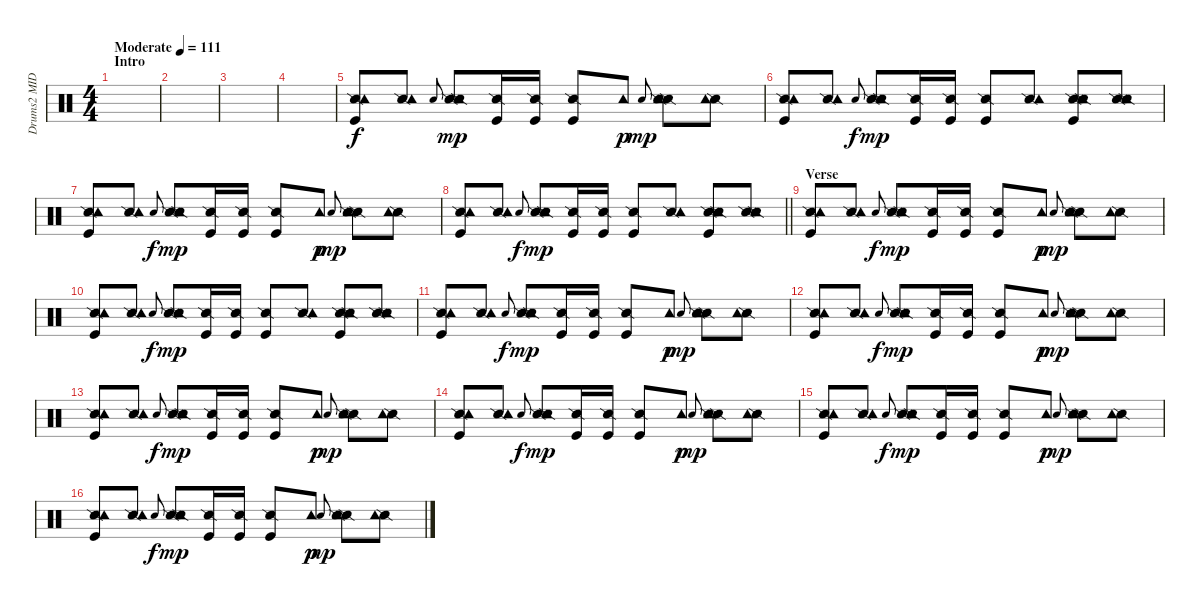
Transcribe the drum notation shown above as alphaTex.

\track ("Drums2 MIDI" "Drums2 MID") {instrument percussion}
\staff {score}
\articulation defaults
\ts (4 4)
\section ("" "Intro")
\tempo (111 "Moderate")
\clef neutral
\ks c
|
|
|
|
("Snare (side stick) 2" "Tambourine (hit)" "Kick (hit)").8 ("Snare (side stick) 2" "Tambourine (hit)").8 "Snare (hit)".8{gr onbeat dy f} ("Snare (side stick) 2" "Tambourine (hit)" "Snare (side stick) 2").8{dy mp} ("Snare (side stick) 2" "Kick (hit)").16 ("Snare (side stick) 2" "Kick (hit)").16 ("Snare (side stick) 2" "Kick (hit)").8 "Tambourine (hit)".8{dy p} "Snare (hit)".8{gr onbeat dy mp} ("Snare (side stick) 2" "Tambourine (hit)" "Snare (side stick) 2").8 ("Snare (side stick) 2" "Tambourine (hit)").8 |
("Snare (side stick) 2" "Tambourine (hit)" "Kick (hit)").8 ("Snare (side stick) 2" "Tambourine (hit)").8 "Snare (hit)".8{gr onbeat dy f} ("Snare (side stick) 2" "Tambourine (hit)" "Snare (side stick) 2").8{dy mp} ("Snare (side stick) 2" "Kick (hit)").16 ("Snare (side stick) 2" "Kick (hit)").16 ("Snare (side stick) 2" "Kick (hit)").8 ("Snare (side stick) 2" "Tambourine (hit)").8 ("Snare (side stick) 2" "Tambourine (hit)" "Kick (hit)" "Snare (side stick) 2").8 ("Snare (side stick) 2" "Tambourine (hit)" "Snare (side stick) 2").8 |
("Snare (side stick) 2" "Tambourine (hit)" "Kick (hit)").8 ("Snare (side stick) 2" "Tambourine (hit)").8 "Snare (hit)".8{gr onbeat dy f} ("Snare (side stick) 2" "Tambourine (hit)" "Snare (side stick) 2").8{dy mp} ("Snare (side stick) 2" "Kick (hit)").16 ("Snare (side stick) 2" "Kick (hit)").16 ("Snare (side stick) 2" "Kick (hit)").8 "Tambourine (hit)".8{dy p} "Snare (hit)".8{gr onbeat dy mp} ("Snare (side stick) 2" "Tambourine (hit)" "Snare (side stick) 2").8 ("Snare (side stick) 2" "Tambourine (hit)").8 |
\barLineRight lightlight
("Snare (side stick) 2" "Tambourine (hit)" "Kick (hit)").8 ("Snare (side stick) 2" "Tambourine (hit)").8 "Snare (hit)".8{gr onbeat dy f} ("Snare (side stick) 2" "Tambourine (hit)" "Snare (side stick) 2").8{dy mp} ("Snare (side stick) 2" "Kick (hit)").16 ("Snare (side stick) 2" "Kick (hit)").16 ("Snare (side stick) 2" "Kick (hit)").8 ("Snare (side stick) 2" "Tambourine (hit)").8 ("Snare (side stick) 2" "Tambourine (hit)" "Kick (hit)" "Snare (side stick) 2").8 ("Snare (side stick) 2" "Tambourine (hit)" "Snare (side stick) 2").8 |
\section ("" "Verse")
("Snare (side stick) 2" "Tambourine (hit)" "Kick (hit)").8 ("Snare (side stick) 2" "Tambourine (hit)").8 "Snare (hit)".8{gr onbeat dy f} ("Snare (side stick) 2" "Tambourine (hit)" "Snare (side stick) 2").8{dy mp} ("Snare (side stick) 2" "Kick (hit)").16 ("Snare (side stick) 2" "Kick (hit)").16 ("Snare (side stick) 2" "Kick (hit)").8 "Tambourine (hit)".8{dy p} "Snare (hit)".8{gr onbeat dy mp} ("Snare (side stick) 2" "Tambourine (hit)" "Snare (side stick) 2").8 ("Snare (side stick) 2" "Tambourine (hit)").8 |
("Snare (side stick) 2" "Tambourine (hit)" "Kick (hit)").8 ("Snare (side stick) 2" "Tambourine (hit)").8 "Snare (hit)".8{gr onbeat dy f} ("Snare (side stick) 2" "Tambourine (hit)" "Snare (side stick) 2").8{dy mp} ("Snare (side stick) 2" "Kick (hit)").16 ("Snare (side stick) 2" "Kick (hit)").16 ("Snare (side stick) 2" "Kick (hit)").8 ("Snare (side stick) 2" "Tambourine (hit)").8 ("Snare (side stick) 2" "Tambourine (hit)" "Kick (hit)" "Snare (side stick) 2").8 ("Snare (side stick) 2" "Tambourine (hit)" "Snare (side stick) 2").8 |
("Snare (side stick) 2" "Tambourine (hit)" "Kick (hit)").8 ("Snare (side stick) 2" "Tambourine (hit)").8 "Snare (hit)".8{gr onbeat dy f} ("Snare (side stick) 2" "Tambourine (hit)" "Snare (side stick) 2").8{dy mp} ("Snare (side stick) 2" "Kick (hit)").16 ("Snare (side stick) 2" "Kick (hit)").16 ("Snare (side stick) 2" "Kick (hit)").8 "Tambourine (hit)".8{dy p} "Snare (hit)".8{gr onbeat dy mp} ("Snare (side stick) 2" "Tambourine (hit)" "Snare (side stick) 2").8 ("Snare (side stick) 2" "Tambourine (hit)").8 |
("Snare (side stick) 2" "Tambourine (hit)" "Kick (hit)").8 ("Snare (side stick) 2" "Tambourine (hit)").8 "Snare (hit)".8{gr onbeat dy f} ("Snare (side stick) 2" "Tambourine (hit)" "Snare (side stick) 2").8{dy mp} ("Snare (side stick) 2" "Kick (hit)").16 ("Snare (side stick) 2" "Kick (hit)").16 ("Snare (side stick) 2" "Kick (hit)").8 "Tambourine (hit)".8{dy p} "Snare (hit)".8{gr onbeat dy mp} ("Snare (side stick) 2" "Tambourine (hit)" "Snare (side stick) 2").8 ("Snare (side stick) 2" "Tambourine (hit)").8 |
("Snare (side stick) 2" "Tambourine (hit)" "Kick (hit)").8 ("Snare (side stick) 2" "Tambourine (hit)").8 "Snare (hit)".8{gr onbeat dy f} ("Snare (side stick) 2" "Tambourine (hit)" "Snare (side stick) 2").8{dy mp} ("Snare (side stick) 2" "Kick (hit)").16 ("Snare (side stick) 2" "Kick (hit)").16 ("Snare (side stick) 2" "Kick (hit)").8 "Tambourine (hit)".8{dy p} "Snare (hit)".8{gr onbeat dy mp} ("Snare (side stick) 2" "Tambourine (hit)" "Snare (side stick) 2").8 ("Snare (side stick) 2" "Tambourine (hit)").8 |
("Snare (side stick) 2" "Tambourine (hit)" "Kick (hit)").8 ("Snare (side stick) 2" "Tambourine (hit)").8 "Snare (hit)".8{gr onbeat dy f} ("Snare (side stick) 2" "Tambourine (hit)" "Snare (side stick) 2").8{dy mp} ("Snare (side stick) 2" "Kick (hit)").16 ("Snare (side stick) 2" "Kick (hit)").16 ("Snare (side stick) 2" "Kick (hit)").8 "Tambourine (hit)".8{dy p} "Snare (hit)".8{gr onbeat dy mp} ("Snare (side stick) 2" "Tambourine (hit)" "Snare (side stick) 2").8 ("Snare (side stick) 2" "Tambourine (hit)").8 |
("Snare (side stick) 2" "Tambourine (hit)" "Kick (hit)").8 ("Snare (side stick) 2" "Tambourine (hit)").8 "Snare (hit)".8{gr onbeat dy f} ("Snare (side stick) 2" "Tambourine (hit)" "Snare (side stick) 2").8{dy mp} ("Snare (side stick) 2" "Kick (hit)").16 ("Snare (side stick) 2" "Kick (hit)").16 ("Snare (side stick) 2" "Kick (hit)").8 "Tambourine (hit)".8{dy p} "Snare (hit)".8{gr onbeat dy mp} ("Snare (side stick) 2" "Tambourine (hit)" "Snare (side stick) 2").8 ("Snare (side stick) 2" "Tambourine (hit)").8 |
("Snare (side stick) 2" "Tambourine (hit)" "Kick (hit)").8 ("Snare (side stick) 2" "Tambourine (hit)").8 "Snare (hit)".8{gr onbeat dy f} ("Snare (side stick) 2" "Tambourine (hit)" "Snare (side stick) 2").8{dy mp} ("Snare (side stick) 2" "Kick (hit)").16 ("Snare (side stick) 2" "Kick (hit)").16 ("Snare (side stick) 2" "Kick (hit)").8 "Tambourine (hit)".8{dy p} "Snare (hit)".8{gr onbeat dy mp} ("Snare (side stick) 2" "Tambourine (hit)" "Snare (side stick) 2").8 ("Snare (side stick) 2" "Tambourine (hit)").8
